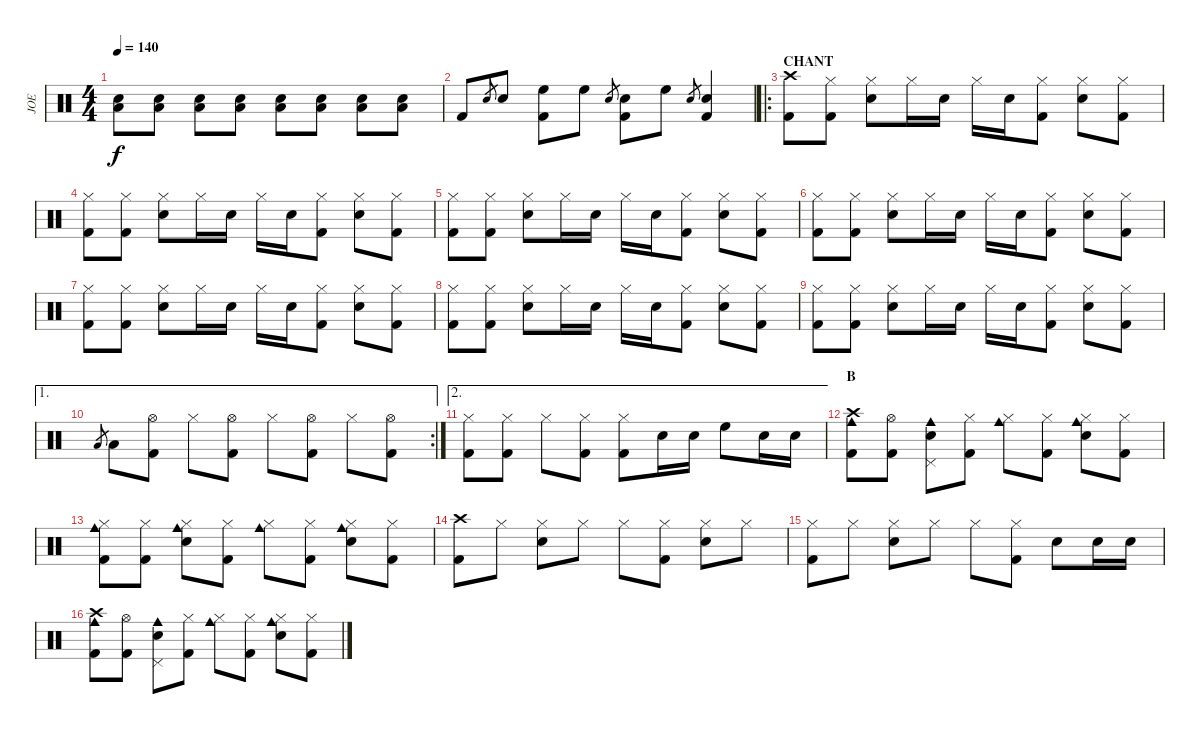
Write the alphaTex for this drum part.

\track ("JOE" "JOE") {instrument percussion}
\staff {score}
\articulation defaults
\ts (4 4)
\tempo 140
\clef neutral
\ks c
("Snare (hit) 2" "Low Floor Tom (hit)").8{dy f} ("Snare (hit) 2" "Low Floor Tom (hit)").8 ("Snare (hit) 2" "Low Floor Tom (hit)").8 ("Snare (hit) 2" "Low Floor Tom (hit)").8 ("Snare (hit) 2" "Low Floor Tom (hit)").8 ("Snare (hit) 2" "Low Floor Tom (hit)").8 ("Snare (hit) 2" "Low Floor Tom (hit)").8 ("Snare (hit) 2" "Low Floor Tom (hit)").8 |
"Kick (hit) 2".8 "Snare (hit) 2".8{gr} "Snare (hit) 2".8 ("High Floor Tom (hit)" "Kick (hit) 2").8 "High Floor Tom (hit)".8 "Snare (hit) 2".8{gr} ("Snare (hit) 2" "Kick (hit) 2").8 "High Floor Tom (hit)".8 "Snare (hit) 2".8{gr} ("Snare (hit) 2" "Kick (hit) 2").4 |
\ro
\section ("" "CHANT")
("Crash high (hit)" "Kick (hit) 2").8 ("Hi-Hat (closed)" "Kick (hit) 2").8 ("Hi-Hat (closed)" "Snare (hit) 2").8 "Hi-Hat (closed)".16 "Snare (hit) 2".16 "Hi-Hat (closed)".16 "Snare (hit) 2".16 ("Hi-Hat (closed)" "Kick (hit) 2").8 ("Hi-Hat (closed)" "Snare (hit) 2").8 ("Hi-Hat (closed)" "Kick (hit) 2").8 |
("Hi-Hat (closed)" "Kick (hit) 2").8 ("Hi-Hat (closed)" "Kick (hit) 2").8 ("Hi-Hat (closed)" "Snare (hit) 2").8 "Hi-Hat (closed)".16 "Snare (hit) 2".16 "Hi-Hat (closed)".16 "Snare (hit) 2".16 ("Hi-Hat (closed)" "Kick (hit) 2").8 ("Hi-Hat (closed)" "Snare (hit) 2").8 ("Hi-Hat (closed)" "Kick (hit) 2").8 |
("Hi-Hat (closed)" "Kick (hit) 2").8 ("Hi-Hat (closed)" "Kick (hit) 2").8 ("Hi-Hat (closed)" "Snare (hit) 2").8 "Hi-Hat (closed)".16 "Snare (hit) 2".16 "Hi-Hat (closed)".16 "Snare (hit) 2".16 ("Hi-Hat (closed)" "Kick (hit) 2").8 ("Hi-Hat (closed)" "Snare (hit) 2").8 ("Hi-Hat (closed)" "Kick (hit) 2").8 |
("Hi-Hat (closed)" "Kick (hit) 2").8 ("Hi-Hat (closed)" "Kick (hit) 2").8 ("Hi-Hat (closed)" "Snare (hit) 2").8 "Hi-Hat (closed)".16 "Snare (hit) 2".16 "Hi-Hat (closed)".16 "Snare (hit) 2".16 ("Hi-Hat (closed)" "Kick (hit) 2").8 ("Hi-Hat (closed)" "Snare (hit) 2").8 ("Hi-Hat (closed)" "Kick (hit) 2").8 |
("Hi-Hat (closed)" "Kick (hit) 2").8 ("Hi-Hat (closed)" "Kick (hit) 2").8 ("Hi-Hat (closed)" "Snare (hit) 2").8 "Hi-Hat (closed)".16 "Snare (hit) 2".16 "Hi-Hat (closed)".16 "Snare (hit) 2".16 ("Hi-Hat (closed)" "Kick (hit) 2").8 ("Hi-Hat (closed)" "Snare (hit) 2").8 ("Hi-Hat (closed)" "Kick (hit) 2").8 |
("Hi-Hat (closed)" "Kick (hit) 2").8 ("Hi-Hat (closed)" "Kick (hit) 2").8 ("Hi-Hat (closed)" "Snare (hit) 2").8 "Hi-Hat (closed)".16 "Snare (hit) 2".16 "Hi-Hat (closed)".16 "Snare (hit) 2".16 ("Hi-Hat (closed)" "Kick (hit) 2").8 ("Hi-Hat (closed)" "Snare (hit) 2").8 ("Hi-Hat (closed)" "Kick (hit) 2").8 |
("Hi-Hat (closed)" "Kick (hit) 2").8 ("Hi-Hat (closed)" "Kick (hit) 2").8 ("Hi-Hat (closed)" "Snare (hit) 2").8 "Hi-Hat (closed)".16 "Snare (hit) 2".16 "Hi-Hat (closed)".16 "Snare (hit) 2".16 ("Hi-Hat (closed)" "Kick (hit) 2").8 ("Hi-Hat (closed)" "Snare (hit) 2").8 ("Hi-Hat (closed)" "Kick (hit) 2").8 |
\ae 1
\rc 2 "Low Floor Tom (hit)".8{gr} "Low Floor Tom (hit)".8
("Hi-Hat (open)" "Kick (hit) 2").8 "Hi-Hat (closed)".8 ("Hi-Hat (open)" "Kick (hit) 2").8 "Hi-Hat (closed)".8 ("Hi-Hat (open)" "Kick (hit) 2").8 "Hi-Hat (closed)".8 ("Hi-Hat (open)" "Kick (hit) 2").8 |
\ae 2
("Hi-Hat (closed)" "Kick (hit) 2").8 ("Hi-Hat (closed)" "Kick (hit) 2").8 "Hi-Hat (closed)".8 ("Hi-Hat (closed)" "Kick (hit) 2").8 ("Hi-Hat (closed)" "Kick (hit) 2").8 "Snare (hit) 2".16 "Snare (hit) 2".16 "High Floor Tom (hit)".8 "Snare (hit) 2".16 "Snare (hit) 2".16 |
\section ("" "B")
("Cowbell medium (hit)" "Crash high (hit)" "Kick (hit) 2").8 ("Hi-Hat (open)" "Kick (hit) 2").8 ("Cowbell medium (hit)" "Pedal Hi-Hat (hit)" "Snare (hit) 2").8 ("Hi-Hat (closed)" "Kick (hit) 2").8 ("Cowbell medium (hit)" "Hi-Hat (closed)").8 ("Hi-Hat (closed)" "Kick (hit) 2").8 ("Cowbell medium (hit)" "Hi-Hat (closed)" "Snare (hit) 2").8 ("Hi-Hat (closed)" "Kick (hit) 2").8 |
("Cowbell medium (hit)" "Hi-Hat (closed)" "Kick (hit) 2").8 ("Hi-Hat (closed)" "Kick (hit) 2").8 ("Cowbell medium (hit)" "Hi-Hat (closed)" "Snare (hit) 2").8 ("Hi-Hat (closed)" "Kick (hit) 2").8 ("Cowbell medium (hit)" "Hi-Hat (closed)").8 ("Hi-Hat (closed)" "Kick (hit) 2").8 ("Cowbell medium (hit)" "Hi-Hat (closed)" "Snare (hit) 2").8 ("Hi-Hat (closed)" "Kick (hit) 2").8 |
("Crash high (hit)" "Kick (hit) 2").8 "Hi-Hat (closed)".8 ("Hi-Hat (closed)" "Snare (hit) 2").8 "Hi-Hat (closed)".8 "Hi-Hat (closed)".8 ("Hi-Hat (closed)" "Kick (hit) 2").8 ("Hi-Hat (closed)" "Snare (hit) 2").8 "Hi-Hat (closed)".8 |
("Hi-Hat (closed)" "Kick (hit) 2").8 "Hi-Hat (closed)".8 ("Hi-Hat (closed)" "Snare (hit) 2").8 "Hi-Hat (closed)".8 "Hi-Hat (closed)".8 ("Hi-Hat (closed)" "Kick (hit) 2").8 "Snare (hit) 2".8 "Snare (hit) 2".16 "Snare (hit) 2".16 |
("Cowbell medium (hit)" "Crash high (hit)" "Kick (hit) 2").8 ("Hi-Hat (open)" "Kick (hit) 2").8 ("Cowbell medium (hit)" "Pedal Hi-Hat (hit)" "Snare (hit) 2").8 ("Hi-Hat (closed)" "Kick (hit) 2").8 ("Cowbell medium (hit)" "Hi-Hat (closed)").8 ("Hi-Hat (closed)" "Kick (hit) 2").8 ("Cowbell medium (hit)" "Hi-Hat (closed)" "Snare (hit) 2").8 ("Hi-Hat (closed)" "Kick (hit) 2").8
